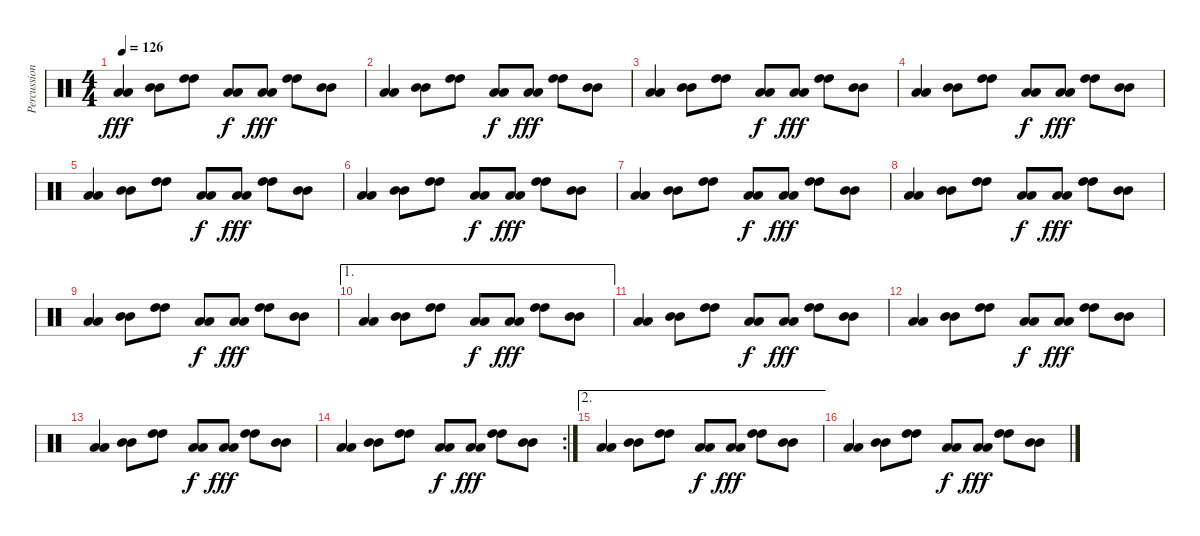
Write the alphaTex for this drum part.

\track ("Percussions 2" "Percussion") {instrument percussion}
\staff {score}
\articulation defaults
\ts (4 4)
\tempo 126
\clef neutral
\ks c
("Low Tom (hit)" "Low Tom (hit)").4{dy fff} ("Mid Tom (hit)" "Mid Tom (hit)").8 ("High Tom (hit)" "High Tom (hit)").8 ("Low Tom (hit)" "Low Tom (hit)").8{dy f} ("Low Tom (hit)" "Low Tom (hit)").8{dy fff} ("High Tom (hit)" "High Tom (hit)").8 ("Mid Tom (hit)" "Mid Tom (hit)").8 |
("Low Tom (hit)" "Low Tom (hit)").4 ("Mid Tom (hit)" "Mid Tom (hit)").8 ("High Tom (hit)" "High Tom (hit)").8 ("Low Tom (hit)" "Low Tom (hit)").8{dy f} ("Low Tom (hit)" "Low Tom (hit)").8{dy fff} ("High Tom (hit)" "High Tom (hit)").8 ("Mid Tom (hit)" "Mid Tom (hit)").8 |
("Low Tom (hit)" "Low Tom (hit)").4 ("Mid Tom (hit)" "Mid Tom (hit)").8 ("High Tom (hit)" "High Tom (hit)").8 ("Low Tom (hit)" "Low Tom (hit)").8{dy f} ("Low Tom (hit)" "Low Tom (hit)").8{dy fff} ("High Tom (hit)" "High Tom (hit)").8 ("Mid Tom (hit)" "Mid Tom (hit)").8 |
("Low Tom (hit)" "Low Tom (hit)").4 ("Mid Tom (hit)" "Mid Tom (hit)").8 ("High Tom (hit)" "High Tom (hit)").8 ("Low Tom (hit)" "Low Tom (hit)").8{dy f} ("Low Tom (hit)" "Low Tom (hit)").8{dy fff} ("High Tom (hit)" "High Tom (hit)").8 ("Mid Tom (hit)" "Mid Tom (hit)").8 |
("Low Tom (hit)" "Low Tom (hit)").4 ("Mid Tom (hit)" "Mid Tom (hit)").8 ("High Tom (hit)" "High Tom (hit)").8 ("Low Tom (hit)" "Low Tom (hit)").8{dy f} ("Low Tom (hit)" "Low Tom (hit)").8{dy fff} ("High Tom (hit)" "High Tom (hit)").8 ("Mid Tom (hit)" "Mid Tom (hit)").8 |
("Low Tom (hit)" "Low Tom (hit)").4 ("Mid Tom (hit)" "Mid Tom (hit)").8 ("High Tom (hit)" "High Tom (hit)").8 ("Low Tom (hit)" "Low Tom (hit)").8{dy f} ("Low Tom (hit)" "Low Tom (hit)").8{dy fff} ("High Tom (hit)" "High Tom (hit)").8 ("Mid Tom (hit)" "Mid Tom (hit)").8 |
("Low Tom (hit)" "Low Tom (hit)").4 ("Mid Tom (hit)" "Mid Tom (hit)").8 ("High Tom (hit)" "High Tom (hit)").8 ("Low Tom (hit)" "Low Tom (hit)").8{dy f} ("Low Tom (hit)" "Low Tom (hit)").8{dy fff} ("High Tom (hit)" "High Tom (hit)").8 ("Mid Tom (hit)" "Mid Tom (hit)").8 |
("Low Tom (hit)" "Low Tom (hit)").4 ("Mid Tom (hit)" "Mid Tom (hit)").8 ("High Tom (hit)" "High Tom (hit)").8 ("Low Tom (hit)" "Low Tom (hit)").8{dy f} ("Low Tom (hit)" "Low Tom (hit)").8{dy fff} ("High Tom (hit)" "High Tom (hit)").8 ("Mid Tom (hit)" "Mid Tom (hit)").8 |
("Low Tom (hit)" "Low Tom (hit)").4 ("Mid Tom (hit)" "Mid Tom (hit)").8 ("High Tom (hit)" "High Tom (hit)").8 ("Low Tom (hit)" "Low Tom (hit)").8{dy f} ("Low Tom (hit)" "Low Tom (hit)").8{dy fff} ("High Tom (hit)" "High Tom (hit)").8 ("Mid Tom (hit)" "Mid Tom (hit)").8 |
\ae 1
("Low Tom (hit)" "Low Tom (hit)").4 ("Mid Tom (hit)" "Mid Tom (hit)").8 ("High Tom (hit)" "High Tom (hit)").8 ("Low Tom (hit)" "Low Tom (hit)").8{dy f} ("Low Tom (hit)" "Low Tom (hit)").8{dy fff} ("High Tom (hit)" "High Tom (hit)").8 ("Mid Tom (hit)" "Mid Tom (hit)").8 |
("Low Tom (hit)" "Low Tom (hit)").4 ("Mid Tom (hit)" "Mid Tom (hit)").8 ("High Tom (hit)" "High Tom (hit)").8 ("Low Tom (hit)" "Low Tom (hit)").8{dy f} ("Low Tom (hit)" "Low Tom (hit)").8{dy fff} ("High Tom (hit)" "High Tom (hit)").8 ("Mid Tom (hit)" "Mid Tom (hit)").8 |
("Low Tom (hit)" "Low Tom (hit)").4 ("Mid Tom (hit)" "Mid Tom (hit)").8 ("High Tom (hit)" "High Tom (hit)").8 ("Low Tom (hit)" "Low Tom (hit)").8{dy f} ("Low Tom (hit)" "Low Tom (hit)").8{dy fff} ("High Tom (hit)" "High Tom (hit)").8 ("Mid Tom (hit)" "Mid Tom (hit)").8 |
("Low Tom (hit)" "Low Tom (hit)").4 ("Mid Tom (hit)" "Mid Tom (hit)").8 ("High Tom (hit)" "High Tom (hit)").8 ("Low Tom (hit)" "Low Tom (hit)").8{dy f} ("Low Tom (hit)" "Low Tom (hit)").8{dy fff} ("High Tom (hit)" "High Tom (hit)").8 ("Mid Tom (hit)" "Mid Tom (hit)").8 |
\rc 2
("Low Tom (hit)" "Low Tom (hit)").4 ("Mid Tom (hit)" "Mid Tom (hit)").8 ("High Tom (hit)" "High Tom (hit)").8 ("Low Tom (hit)" "Low Tom (hit)").8{dy f} ("Low Tom (hit)" "Low Tom (hit)").8{dy fff} ("High Tom (hit)" "High Tom (hit)").8 ("Mid Tom (hit)" "Mid Tom (hit)").8 |
\ae 2
("Low Tom (hit)" "Low Tom (hit)").4 ("Mid Tom (hit)" "Mid Tom (hit)").8 ("High Tom (hit)" "High Tom (hit)").8 ("Low Tom (hit)" "Low Tom (hit)").8{dy f} ("Low Tom (hit)" "Low Tom (hit)").8{dy fff} ("High Tom (hit)" "High Tom (hit)").8 ("Mid Tom (hit)" "Mid Tom (hit)").8 |
("Low Tom (hit)" "Low Tom (hit)").4 ("Mid Tom (hit)" "Mid Tom (hit)").8 ("High Tom (hit)" "High Tom (hit)").8 ("Low Tom (hit)" "Low Tom (hit)").8{dy f} ("Low Tom (hit)" "Low Tom (hit)").8{dy fff} ("High Tom (hit)" "High Tom (hit)").8 ("Mid Tom (hit)" "Mid Tom (hit)").8
